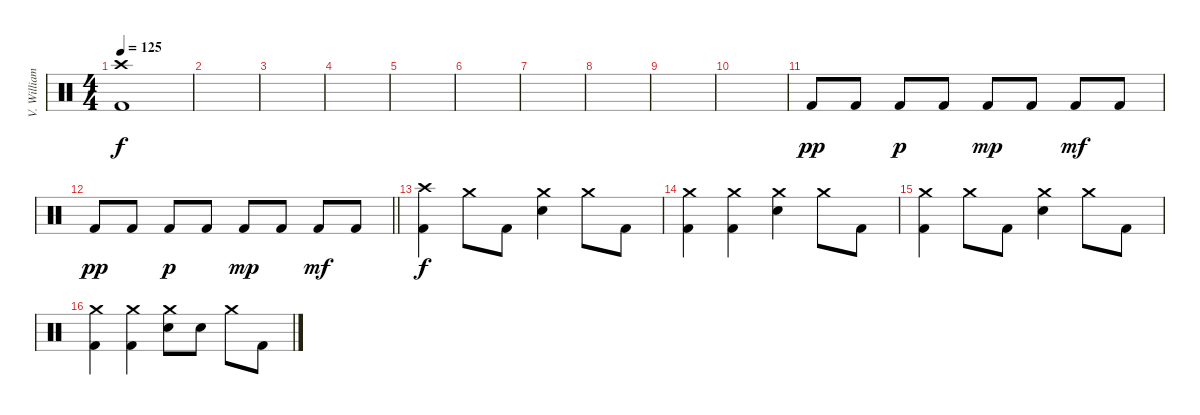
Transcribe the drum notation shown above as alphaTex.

\track ("V. Williams (Drums)" "V. William") {instrument percussion}
\staff {score}
\articulation defaults
\ts (4 4)
\section ("" "")
\tempo 125
\clef neutral
\ks c
("Crash high (hit)" "Kick (hit) 2").1{dy f} |
|
|
|
|
|
|
|
|
|
"Kick (hit) 2".8{dy pp} "Kick (hit) 2".8 "Kick (hit) 2".8{dy p} "Kick (hit) 2".8 "Kick (hit) 2".8{dy mp} "Kick (hit) 2".8 "Kick (hit) 2".8{dy mf} "Kick (hit) 2".8 |
\barLineRight lightlight "Kick (hit) 2".8{dy pp} "Kick (hit) 2".8 "Kick (hit) 2".8{dy p} "Kick (hit) 2".8 "Kick (hit) 2".8{dy mp} "Kick (hit) 2".8 "Kick (hit) 2".8{dy mf} "Kick (hit) 2".8
|
\section ("" "")
("Crash high (hit)" "Kick (hit) 2").4{dy f} "Crash medium (hit)".8 "Kick (hit) 2".8 ("Crash medium (hit)" "Electric Snare (hit)").4 "Crash medium (hit)".8 "Kick (hit) 2".8 |
("Crash medium (hit)" "Kick (hit) 2").4 ("Crash medium (hit)" "Kick (hit) 2").4 ("Crash medium (hit)" "Electric Snare (hit)").4 "Crash medium (hit)".8 "Kick (hit) 2".8 |
("Crash medium (hit)" "Kick (hit) 2").4 "Crash medium (hit)".8 "Kick (hit) 2".8 ("Crash medium (hit)" "Electric Snare (hit)").4 "Crash medium (hit)".8 "Kick (hit) 2".8 |
("Crash medium (hit)" "Kick (hit) 2").4 ("Crash medium (hit)" "Kick (hit) 2").4 ("Crash medium (hit)" "Electric Snare (hit)").8 "Electric Snare (hit)".8 "Crash medium (hit)".8 "Kick (hit) 2".8
